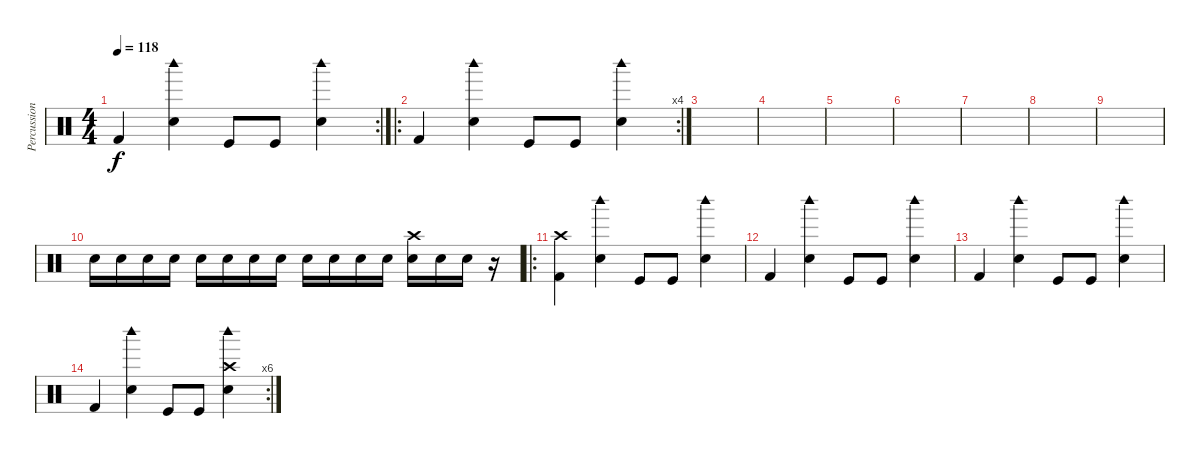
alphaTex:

\track ("Percussion" "Percussion") {instrument percussion}
\staff {score}
\articulation defaults
\rc 2
\ts (4 4)
\tempo 118
\clef neutral
\ks c "Kick (hit) 2".4{dy f}
("Woodblock high (hit)" "Snare (hit) 2").4 "Kick (hit)".8 "Kick (hit)".8 ("Woodblock high (hit)" "Snare (hit) 2").4 |
\ro
\rc 4 "Kick (hit) 2".4
("Woodblock high (hit)" "Snare (hit) 2").4 "Kick (hit)".8 "Kick (hit)".8 ("Woodblock high (hit)" "Snare (hit) 2").4 |
|
|
|
|
|
|
|
"Snare (hit) 2".16 "Snare (hit) 2".16 "Snare (hit) 2".16 "Snare (hit) 2".16 "Snare (hit) 2".16 "Snare (hit) 2".16 "Snare (hit) 2".16 "Snare (hit) 2".16 "Snare (hit) 2".16 "Snare (hit) 2".16 "Snare (hit) 2".16 "Snare (hit) 2".16 ("Crash high (hit)" "Snare (hit) 2").16 "Snare (hit) 2".16 "Snare (hit) 2".16 r.16 |
\ro
("Crash high (hit)" "Kick (hit) 2").4 ("Woodblock high (hit)" "Snare (hit) 2").4 "Kick (hit)".8 "Kick (hit)".8 ("Woodblock high (hit)" "Snare (hit) 2").4 |
"Kick (hit) 2".4 ("Woodblock high (hit)" "Snare (hit) 2").4 "Kick (hit)".8 "Kick (hit)".8 ("Woodblock high (hit)" "Snare (hit) 2").4 |
"Kick (hit) 2".4 ("Woodblock high (hit)" "Snare (hit) 2").4 "Kick (hit)".8 "Kick (hit)".8 ("Woodblock high (hit)" "Snare (hit) 2").4 |
\rc 6 "Kick (hit) 2".4
("Woodblock high (hit)" "Snare (hit) 2").4 "Kick (hit)".8 "Kick (hit)".8 ("Woodblock high (hit)" "Snare (hit) 2" "Crash high (hit)").4
